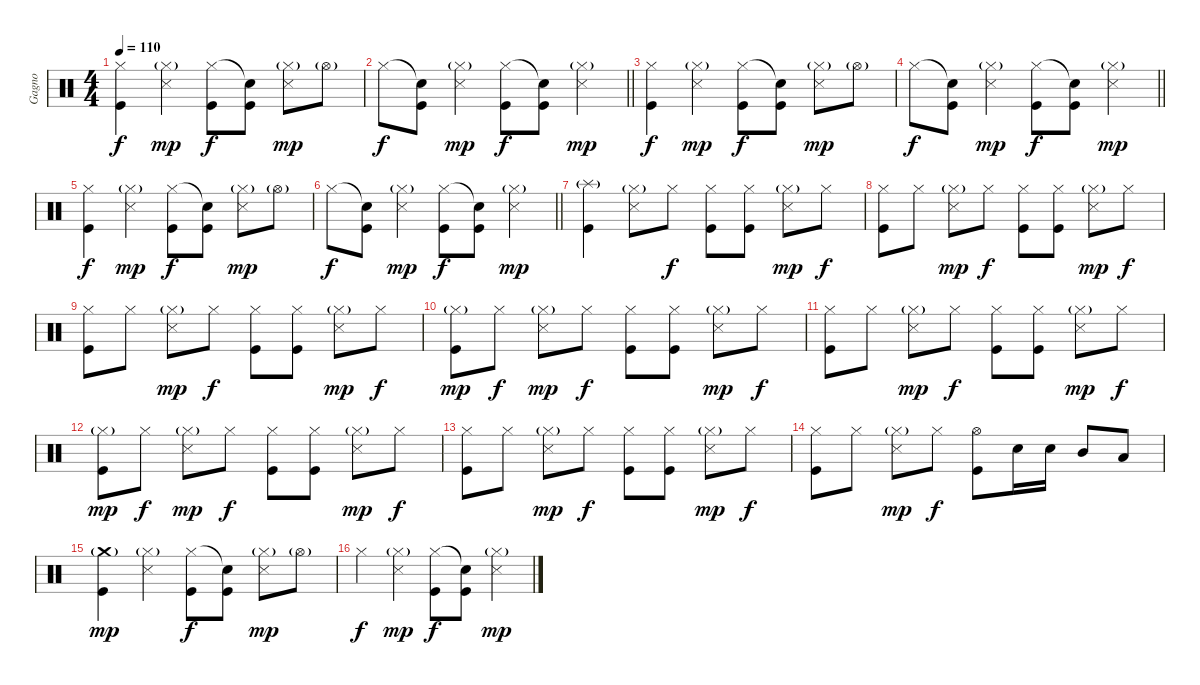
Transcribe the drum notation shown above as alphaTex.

\track ("Gagno" "Gagno") {instrument percussion}
\staff {score}
\articulation defaults
\ts (4 4)
\tempo 110
\clef neutral
\ks c
("Hi-Hat (closed)" "Kick (hit)").4{dy f} ("Hi-Hat (closed)"{g} "Snare (side stick) 3").4{dy mp} ("Hi-Hat (closed)" "Kick (hit)").8{dy f} ("Snare (hit)"{t} "Kick (hit)").8 ("Hi-Hat (closed)"{g} "Snare (side stick) 3").8{dy mp} "Hi-Hat (open)"{g}.8 |
\barLineRight lightlight "Hi-Hat (closed)".8{dy f}
("Snare (hit)"{t} "Kick (hit)").8 ("Hi-Hat (closed)"{g} "Snare (side stick) 3").4{dy mp} ("Hi-Hat (closed)" "Kick (hit)").8{dy f} ("Snare (hit)"{t} "Kick (hit)").8 ("Hi-Hat (closed)"{g} "Snare (side stick) 3").4{dy mp} |
("Hi-Hat (closed)" "Kick (hit)").4{dy f} ("Hi-Hat (closed)"{g} "Snare (side stick) 3").4{dy mp} ("Hi-Hat (closed)" "Kick (hit)").8{dy f} ("Snare (hit)"{t} "Kick (hit)").8 ("Hi-Hat (closed)"{g} "Snare (side stick) 3").8{dy mp} "Hi-Hat (open)"{g}.8 |
\barLineRight lightlight "Hi-Hat (closed)".8{dy f}
("Snare (hit)"{t} "Kick (hit)").8 ("Hi-Hat (closed)"{g} "Snare (side stick) 3").4{dy mp} ("Hi-Hat (closed)" "Kick (hit)").8{dy f} ("Snare (hit)"{t} "Kick (hit)").8 ("Hi-Hat (closed)"{g} "Snare (side stick) 3").4{dy mp} |
("Hi-Hat (closed)" "Kick (hit)").4{dy f} ("Hi-Hat (closed)"{g} "Snare (side stick) 3").4{dy mp} ("Hi-Hat (closed)" "Kick (hit)").8{dy f} ("Snare (hit)"{t} "Kick (hit)").8 ("Hi-Hat (closed)"{g} "Snare (side stick) 3").8{dy mp} "Hi-Hat (open)"{g}.8 |
\barLineRight lightlight "Hi-Hat (closed)".8{dy f}
("Snare (hit)"{t} "Kick (hit)").8 ("Hi-Hat (closed)"{g} "Snare (side stick) 3").4{dy mp} ("Hi-Hat (closed)" "Kick (hit)").8{dy f} ("Snare (hit)"{t} "Kick (hit)").8 ("Hi-Hat (closed)"{g} "Snare (side stick) 3").4{dy mp} |
("Splash (hit)"{g} "Kick (hit)").4 ("Hi-Hat (closed)"{g} "Snare (side stick) 3").8 "Hi-Hat (closed)".8{dy f} ("Hi-Hat (closed)" "Kick (hit)").8 ("Hi-Hat (closed)" "Kick (hit)").8 ("Hi-Hat (closed)"{g} "Snare (side stick) 3").8{dy mp} "Hi-Hat (closed)".8{dy f} |
("Hi-Hat (closed)" "Kick (hit)").8 "Hi-Hat (closed)".8 ("Hi-Hat (closed)"{g} "Snare (side stick) 3").8{dy mp} "Hi-Hat (closed)".8{dy f} ("Hi-Hat (closed)" "Kick (hit)").8 ("Hi-Hat (closed)" "Kick (hit)").8 ("Hi-Hat (closed)"{g} "Snare (side stick) 3").8{dy mp} "Hi-Hat (closed)".8{dy f} |
("Hi-Hat (closed)" "Kick (hit)").8 "Hi-Hat (closed)".8 ("Hi-Hat (closed)"{g} "Snare (side stick) 3").8{dy mp} "Hi-Hat (closed)".8{dy f} ("Hi-Hat (closed)" "Kick (hit)").8 ("Hi-Hat (closed)" "Kick (hit)").8 ("Hi-Hat (closed)"{g} "Snare (side stick) 3").8{dy mp} "Hi-Hat (closed)".8{dy f} |
("Hi-Hat (closed)"{g} "Kick (hit)").8{dy mp} "Hi-Hat (closed)".8{dy f} ("Hi-Hat (closed)"{g} "Snare (side stick) 3").8{dy mp} "Hi-Hat (closed)".8{dy f} ("Hi-Hat (closed)" "Kick (hit)").8 ("Hi-Hat (closed)" "Kick (hit)").8 ("Hi-Hat (closed)"{g} "Snare (side stick) 3").8{dy mp} "Hi-Hat (closed)".8{dy f} |
("Hi-Hat (closed)" "Kick (hit)").8 "Hi-Hat (closed)".8 ("Hi-Hat (closed)"{g} "Snare (side stick) 3").8{dy mp} "Hi-Hat (closed)".8{dy f} ("Hi-Hat (closed)" "Kick (hit)").8 ("Hi-Hat (closed)" "Kick (hit)").8 ("Hi-Hat (closed)"{g} "Snare (side stick) 3").8{dy mp} "Hi-Hat (closed)".8{dy f} |
("Hi-Hat (closed)"{g} "Kick (hit)").8{dy mp} "Hi-Hat (closed)".8{dy f} ("Hi-Hat (closed)"{g} "Snare (side stick) 3").8{dy mp} "Hi-Hat (closed)".8{dy f} ("Hi-Hat (closed)" "Kick (hit)").8 ("Hi-Hat (closed)" "Kick (hit)").8 ("Hi-Hat (closed)"{g} "Snare (side stick) 3").8{dy mp} "Hi-Hat (closed)".8{dy f} |
("Hi-Hat (closed)" "Kick (hit)").8 "Hi-Hat (closed)".8 ("Hi-Hat (closed)"{g} "Snare (side stick) 3").8{dy mp} "Hi-Hat (closed)".8{dy f} ("Hi-Hat (closed)" "Kick (hit)").8 ("Hi-Hat (closed)" "Kick (hit)").8 ("Hi-Hat (closed)"{g} "Snare (side stick) 3").8{dy mp} "Hi-Hat (closed)".8{dy f} |
("Hi-Hat (closed)" "Kick (hit)").8 "Hi-Hat (closed)".8 ("Hi-Hat (closed)"{g} "Snare (side stick) 3").8{dy mp} "Hi-Hat (closed)".8{dy f} ("Hi-Hat (open)" "Kick (hit)").8 "Snare (hit) 2".16 "Snare (hit) 2".16 "Mid Tom (hit)".8 "Low Tom (hit)".8 |
("Crash medium (hit)"{g} "Kick (hit)").4{dy mp} ("Hi-Hat (closed)"{g} "Snare (side stick) 3").4 ("Hi-Hat (closed)" "Kick (hit)").8{dy f} ("Snare (hit)"{t} "Kick (hit)").8 ("Hi-Hat (closed)"{g} "Snare (side stick) 3").8{dy mp} "Hi-Hat (open)"{g}.8 |
"Hi-Hat (closed)".4{dy f} ("Hi-Hat (closed)"{g} "Snare (side stick) 3").4{dy mp} ("Hi-Hat (closed)" "Kick (hit)").8{dy f} ("Snare (hit)"{t} "Kick (hit)").8 ("Hi-Hat (closed)"{g} "Snare (side stick) 3").4{dy mp}
